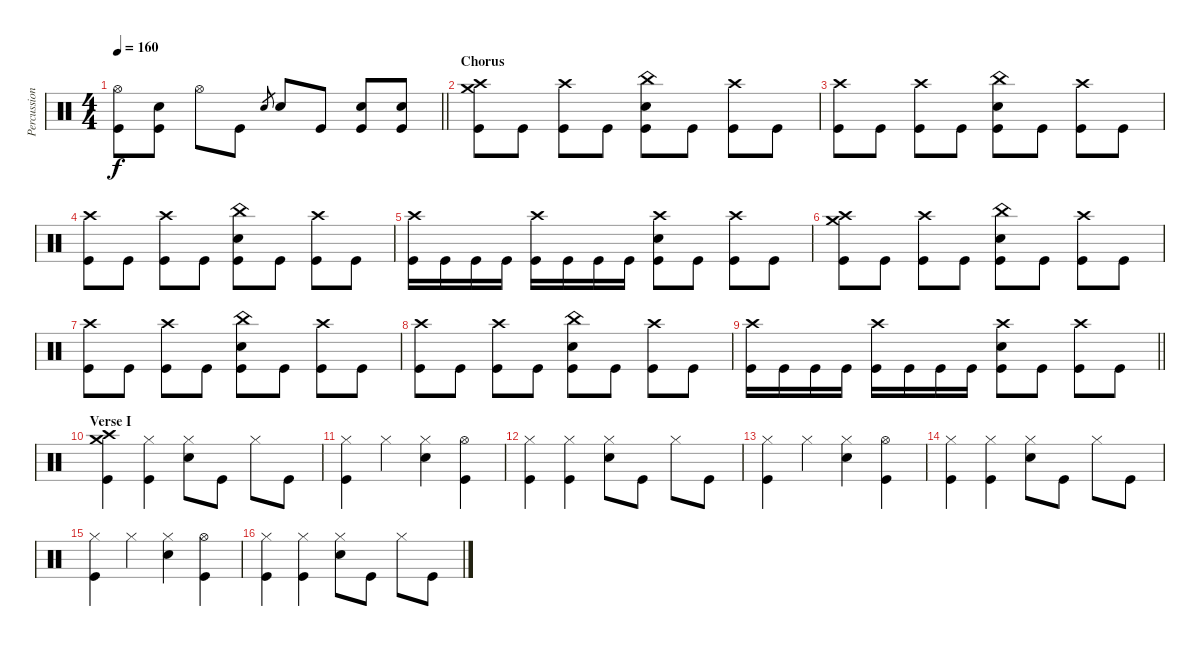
\track ("Percussion" "Percussion") {instrument percussion}
\staff {score}
\articulation defaults
\ts (4 4)
\tempo 160
\clef neutral
\barLineRight lightlight
\ks c
("Hi-Hat (open)" "Kick (hit)").8{dy f} ("Electric Snare (hit)" "Kick (hit)").8 "Hi-Hat (open)".8 "Kick (hit)".8 "Electric Snare (hit)".8{gr} "Electric Snare (hit)".8 "Kick (hit)".8 ("Electric Snare (hit)" "Kick (hit)").8 ("Electric Snare (hit)" "Kick (hit)").8 |
\section ("" "Chorus")
("Crash medium (hit)" "Crash high (hit)" "Kick (hit)").8 "Kick (hit)".8 ("Crash high (hit)" "Kick (hit)").8 "Kick (hit)".8 ("China (hit)" "Electric Snare (hit)" "Kick (hit)").8 "Kick (hit)".8 ("Crash high (hit)" "Kick (hit)").8 "Kick (hit)".8 |
("Crash high (hit)" "Kick (hit)").8 "Kick (hit)".8 ("Crash high (hit)" "Kick (hit)").8 "Kick (hit)".8 ("China (hit)" "Electric Snare (hit)" "Kick (hit)").8 "Kick (hit)".8 ("Crash high (hit)" "Kick (hit)").8 "Kick (hit)".8 |
("Crash high (hit)" "Kick (hit)").8 "Kick (hit)".8 ("Crash high (hit)" "Kick (hit)").8 "Kick (hit)".8 ("China (hit)" "Electric Snare (hit)" "Kick (hit)").8 "Kick (hit)".8 ("Crash high (hit)" "Kick (hit)").8 "Kick (hit)".8 |
("Crash high (hit)" "Kick (hit)").16 "Kick (hit)".16 "Kick (hit)".16 "Kick (hit)".16 ("Crash high (hit)" "Kick (hit)").16 "Kick (hit)".16 "Kick (hit)".16 "Kick (hit)".16 ("Crash high (hit)" "Electric Snare (hit)" "Kick (hit)").8 "Kick (hit)".8 ("Crash high (hit)" "Kick (hit)").8 "Kick (hit)".8 |
("Crash medium (hit)" "Crash high (hit)" "Kick (hit)").8 "Kick (hit)".8 ("Crash high (hit)" "Kick (hit)").8 "Kick (hit)".8 ("China (hit)" "Electric Snare (hit)" "Kick (hit)").8 "Kick (hit)".8 ("Crash high (hit)" "Kick (hit)").8 "Kick (hit)".8 |
("Crash high (hit)" "Kick (hit)").8 "Kick (hit)".8 ("Crash high (hit)" "Kick (hit)").8 "Kick (hit)".8 ("China (hit)" "Electric Snare (hit)" "Kick (hit)").8 "Kick (hit)".8 ("Crash high (hit)" "Kick (hit)").8 "Kick (hit)".8 |
("Crash high (hit)" "Kick (hit)").8 "Kick (hit)".8 ("Crash high (hit)" "Kick (hit)").8 "Kick (hit)".8 ("China (hit)" "Electric Snare (hit)" "Kick (hit)").8 "Kick (hit)".8 ("Crash high (hit)" "Kick (hit)").8 "Kick (hit)".8 |
\barLineRight lightlight
("Crash high (hit)" "Kick (hit)").16 "Kick (hit)".16 "Kick (hit)".16 "Kick (hit)".16 ("Crash high (hit)" "Kick (hit)").16 "Kick (hit)".16 "Kick (hit)".16 "Kick (hit)".16 ("Crash high (hit)" "Electric Snare (hit)" "Kick (hit)").8 "Kick (hit)".8 ("Crash high (hit)" "Kick (hit)").8 "Kick (hit)".8 |
\section ("" "Verse I")
("Crash high (hit)" "Crash medium (hit)" "Kick (hit)").4 ("Hi-Hat (closed)" "Kick (hit)").4 ("Hi-Hat (closed)" "Electric Snare (hit)").8 "Kick (hit)".8 "Hi-Hat (closed)".8 "Kick (hit)".8 |
("Hi-Hat (closed)" "Kick (hit)").4 "Hi-Hat (closed)".4 ("Hi-Hat (closed)" "Electric Snare (hit)").4 ("Hi-Hat (open)" "Kick (hit)").4 |
("Hi-Hat (closed)" "Kick (hit)").4 ("Hi-Hat (closed)" "Kick (hit)").4 ("Hi-Hat (closed)" "Electric Snare (hit)").8 "Kick (hit)".8 "Hi-Hat (closed)".8 "Kick (hit)".8 |
("Hi-Hat (closed)" "Kick (hit)").4 "Hi-Hat (closed)".4 ("Hi-Hat (closed)" "Electric Snare (hit)").4 ("Hi-Hat (open)" "Kick (hit)").4 |
("Hi-Hat (closed)" "Kick (hit)").4 ("Hi-Hat (closed)" "Kick (hit)").4 ("Hi-Hat (closed)" "Electric Snare (hit)").8 "Kick (hit)".8 "Hi-Hat (closed)".8 "Kick (hit)".8 |
("Hi-Hat (closed)" "Kick (hit)").4 "Hi-Hat (closed)".4 ("Hi-Hat (closed)" "Electric Snare (hit)").4 ("Hi-Hat (open)" "Kick (hit)").4 |
("Hi-Hat (closed)" "Kick (hit)").4 ("Hi-Hat (closed)" "Kick (hit)").4 ("Hi-Hat (closed)" "Electric Snare (hit)").8 "Kick (hit)".8 "Hi-Hat (closed)".8 "Kick (hit)".8
